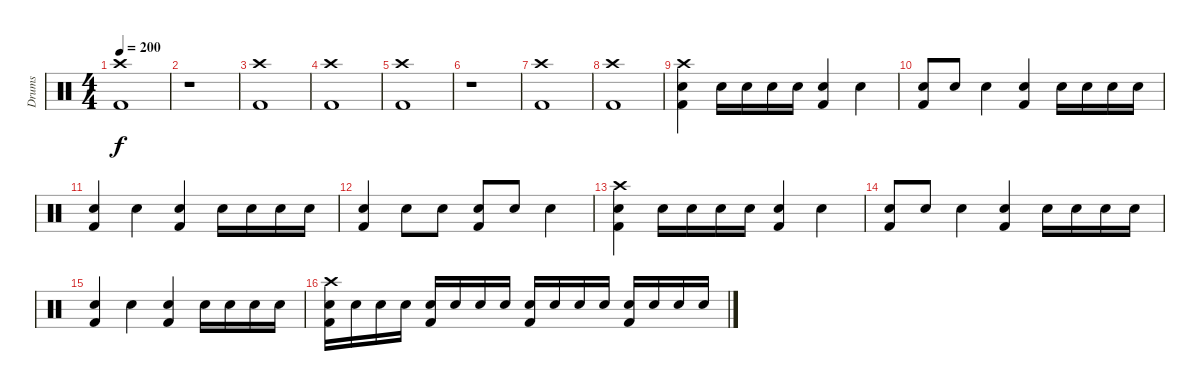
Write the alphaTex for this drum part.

\track ("Drums" "Drums") {instrument percussion}
\staff {score}
\articulation defaults
\ts (4 4)
\tempo 200
\clef neutral
\ks c
("Crash high (hit)" "Kick (hit) 2").1{dy f} |
r.1 |
("Crash high (hit)" "Kick (hit) 2").1 |
("Crash high (hit)" "Kick (hit) 2").1 |
("Crash high (hit)" "Kick (hit) 2").1 |
r.1 |
("Crash high (hit)" "Kick (hit) 2").1 |
("Crash high (hit)" "Kick (hit) 2").1 |
("Crash high (hit)" "Snare (hit) 2" "Kick (hit) 2").4 "Snare (hit) 2".16 "Snare (hit) 2".16 "Snare (hit) 2".16 "Snare (hit) 2".16 ("Snare (hit) 2" "Kick (hit) 2").4 "Snare (hit) 2".4 |
("Snare (hit) 2" "Kick (hit) 2").8 "Snare (hit) 2".8 "Snare (hit) 2".4 ("Snare (hit) 2" "Kick (hit) 2").4 "Snare (hit) 2".16 "Snare (hit) 2".16 "Snare (hit) 2".16 "Snare (hit) 2".16 |
("Snare (hit) 2" "Kick (hit) 2").4 "Snare (hit) 2".4 ("Snare (hit) 2" "Kick (hit) 2").4 "Snare (hit) 2".16 "Snare (hit) 2".16 "Snare (hit) 2".16 "Snare (hit) 2".16 |
("Snare (hit) 2" "Kick (hit) 2").4 "Snare (hit) 2".8 "Snare (hit) 2".8 ("Snare (hit) 2" "Kick (hit) 2").8 "Snare (hit) 2".8 "Snare (hit) 2".4 |
("Crash high (hit)" "Snare (hit) 2" "Kick (hit) 2").4 "Snare (hit) 2".16 "Snare (hit) 2".16 "Snare (hit) 2".16 "Snare (hit) 2".16 ("Snare (hit) 2" "Kick (hit) 2").4 "Snare (hit) 2".4 |
("Snare (hit) 2" "Kick (hit) 2").8 "Snare (hit) 2".8 "Snare (hit) 2".4 ("Snare (hit) 2" "Kick (hit) 2").4 "Snare (hit) 2".16 "Snare (hit) 2".16 "Snare (hit) 2".16 "Snare (hit) 2".16 |
("Snare (hit) 2" "Kick (hit) 2").4 "Snare (hit) 2".4 ("Snare (hit) 2" "Kick (hit) 2").4 "Snare (hit) 2".16 "Snare (hit) 2".16 "Snare (hit) 2".16 "Snare (hit) 2".16 |
("Crash high (hit)" "Snare (hit) 2" "Kick (hit) 2").16 "Snare (hit) 2".16 "Snare (hit) 2".16 "Snare (hit) 2".16 ("Snare (hit) 2" "Kick (hit) 2").16 "Snare (hit) 2".16 "Snare (hit) 2".16 "Snare (hit) 2".16 ("Snare (hit) 2" "Kick (hit) 2").16 "Snare (hit) 2".16 "Snare (hit) 2".16 "Snare (hit) 2".16 ("Snare (hit) 2" "Kick (hit) 2").16 "Snare (hit) 2".16 "Snare (hit) 2".16 "Snare (hit) 2".16
